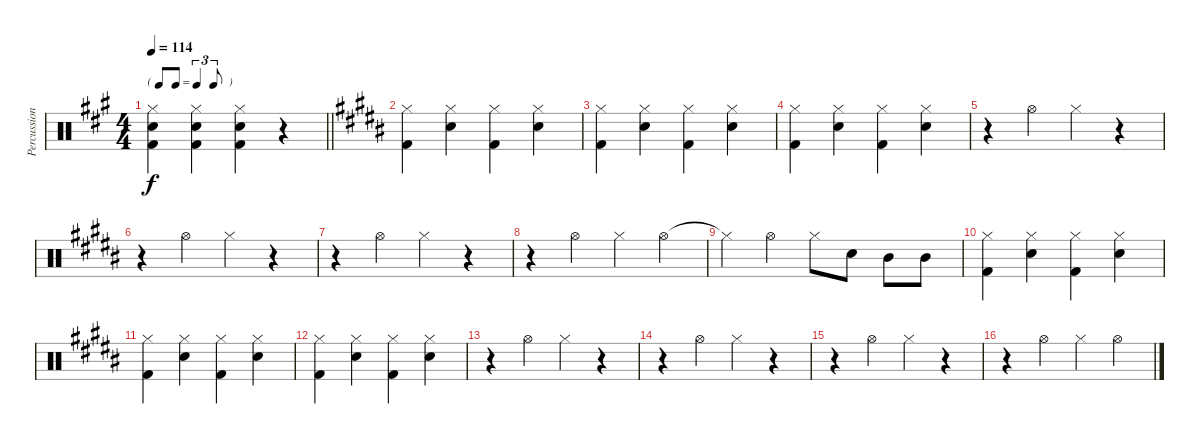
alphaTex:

\track ("Percussion" "Percussion") {instrument percussion}
\staff {score}
\articulation defaults
\ts (4 4)
\tf triplet8th
\tempo 114
\clef neutral
\barLineRight lightlight
\ks a
("Hi-Hat (closed)" "Kick (hit) 2" "Snare (hit) 2").4{dy f} ("Hi-Hat (closed)" "Kick (hit) 2" "Snare (hit) 2").4 ("Hi-Hat (closed)" "Kick (hit) 2" "Snare (hit) 2").4 r.4 |
\ks b
("Hi-Hat (closed)" "Kick (hit) 2").4 ("Hi-Hat (closed)" "Snare (hit) 2").4 ("Hi-Hat (closed)" "Kick (hit) 2").4 ("Hi-Hat (closed)" "Snare (hit) 2").4 |
("Hi-Hat (closed)" "Kick (hit) 2").4 ("Hi-Hat (closed)" "Snare (hit) 2").4 ("Hi-Hat (closed)" "Kick (hit) 2").4 ("Hi-Hat (closed)" "Snare (hit) 2").4 |
("Hi-Hat (closed)" "Kick (hit) 2").4 ("Hi-Hat (closed)" "Snare (hit) 2").4 ("Hi-Hat (closed)" "Kick (hit) 2").4 ("Hi-Hat (closed)" "Snare (hit) 2").4 |
r.4 "Hi-Hat (open)".4 "Hi-Hat (closed)".4 r.4 |
r.4 "Hi-Hat (open)".4 "Hi-Hat (closed)".4 r.4 |
r.4 "Hi-Hat (open)".4 "Hi-Hat (closed)".4 r.4 |
r.4 "Hi-Hat (open)".4 "Hi-Hat (closed)".4 "Hi-Hat (open)".4 |
"Hi-Hat (closed)"{t}.4 "Hi-Hat (open)".4 "Hi-Hat (closed)".8 "Snare (hit) 2".8 "Mid Tom (hit)".8 "Mid Tom (hit)".8 |
("Hi-Hat (closed)" "Kick (hit) 2").4 ("Hi-Hat (closed)" "Snare (hit) 2").4 ("Hi-Hat (closed)" "Kick (hit) 2").4 ("Hi-Hat (closed)" "Snare (hit) 2").4 |
("Hi-Hat (closed)" "Kick (hit) 2").4 ("Hi-Hat (closed)" "Snare (hit) 2").4 ("Hi-Hat (closed)" "Kick (hit) 2").4 ("Hi-Hat (closed)" "Snare (hit) 2").4 |
("Hi-Hat (closed)" "Kick (hit) 2").4 ("Hi-Hat (closed)" "Snare (hit) 2").4 ("Hi-Hat (closed)" "Kick (hit) 2").4 ("Hi-Hat (closed)" "Snare (hit) 2").4 |
r.4 "Hi-Hat (open)".4 "Hi-Hat (closed)".4 r.4 |
r.4 "Hi-Hat (open)".4 "Hi-Hat (closed)".4 r.4 |
r.4 "Hi-Hat (open)".4 "Hi-Hat (closed)".4 r.4 |
r.4 "Hi-Hat (open)".4 "Hi-Hat (closed)".4 "Hi-Hat (open)".4
